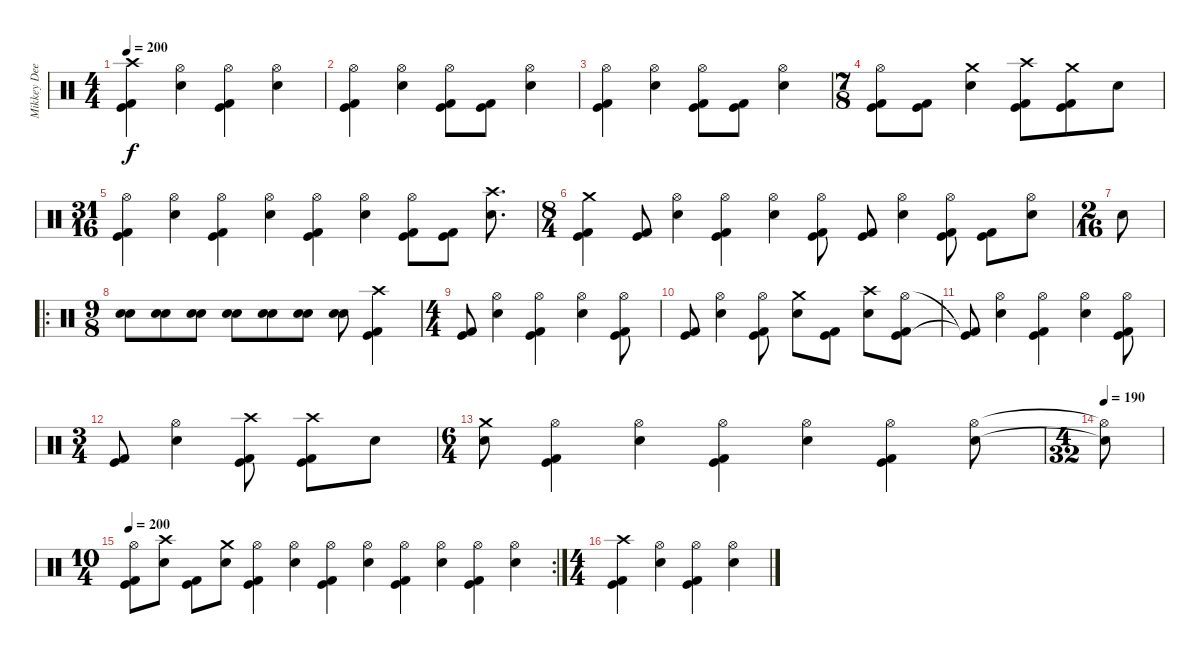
\track ("Mikkey Dee" "Mikkey Dee") {instrument percussion}
\staff {score}
\articulation defaults
\ts (4 4)
\tempo 200
\clef neutral
\ks c
("Crash high (hit)" "Kick (hit)" "Kick (hit) 2").4{dy f} ("Hi-Hat (open)" "Electric Snare (hit)").4 ("Hi-Hat (open)" "Kick (hit)" "Kick (hit) 2").4 ("Hi-Hat (open)" "Electric Snare (hit)").4 |
("Hi-Hat (open)" "Kick (hit)" "Kick (hit) 2").4 ("Hi-Hat (open)" "Electric Snare (hit)").4 ("Hi-Hat (open)" "Kick (hit)" "Kick (hit) 2").8 ("Kick (hit)" "Kick (hit) 2").8 ("Hi-Hat (open)" "Electric Snare (hit)").4 |
("Hi-Hat (open)" "Kick (hit)" "Kick (hit) 2").4 ("Hi-Hat (open)" "Electric Snare (hit)").4 ("Hi-Hat (open)" "Kick (hit)" "Kick (hit) 2").8 ("Kick (hit)" "Kick (hit) 2").8 ("Hi-Hat (open)" "Electric Snare (hit)").4 |
\ts (7 8)
("Hi-Hat (open)" "Kick (hit)" "Kick (hit) 2").8 ("Kick (hit)" "Kick (hit) 2").8 ("Crash medium (hit)" "Electric Snare (hit)").4 ("Crash high (hit)" "Kick (hit)" "Kick (hit) 2").8 ("Crash medium (hit)" "Kick (hit)" "Kick (hit) 2").8 "Electric Snare (hit)".8 |
\ts (31 16)
("Hi-Hat (open)" "Kick (hit)" "Kick (hit) 2").4 ("Hi-Hat (open)" "Electric Snare (hit)").4 ("Hi-Hat (open)" "Kick (hit)" "Kick (hit) 2").4 ("Hi-Hat (open)" "Electric Snare (hit)").4 ("Hi-Hat (open)" "Kick (hit)" "Kick (hit) 2").4 ("Hi-Hat (open)" "Electric Snare (hit)").4 ("Hi-Hat (open)" "Kick (hit)" "Kick (hit) 2").8 ("Kick (hit)" "Kick (hit) 2").8 ("Crash high (hit)" "Electric Snare (hit)").8{d} |
\ts (8 4)
("Crash medium (hit)" "Kick (hit)" "Kick (hit) 2").4 ("Kick (hit)" "Kick (hit) 2").8 ("Hi-Hat (open)" "Electric Snare (hit)").4 ("Hi-Hat (open)" "Kick (hit)" "Kick (hit) 2").4 ("Hi-Hat (open)" "Electric Snare (hit)").4 ("Hi-Hat (open)" "Kick (hit)" "Kick (hit) 2").8 ("Kick (hit)" "Kick (hit) 2").8 ("Hi-Hat (open)" "Electric Snare (hit)").4 ("Hi-Hat (open)" "Kick (hit)" "Kick (hit) 2").8 ("Kick (hit)" "Kick (hit) 2").8 ("Hi-Hat (open)" "Electric Snare (hit)").8 |
\ts (2 16)
"Electric Snare (hit)".8 |
\ro
\ts (9 8)
("Electric Snare (hit)" "Snare (hit) 2").8 ("Electric Snare (hit)" "Snare (hit) 2").8 ("Electric Snare (hit)" "Snare (hit) 2").8 ("Electric Snare (hit)" "Snare (hit) 2").8 ("Electric Snare (hit)" "Snare (hit) 2").8 ("Electric Snare (hit)" "Snare (hit) 2").8 ("Electric Snare (hit)" "Snare (hit) 2").8 ("Crash high (hit)" "Kick (hit)" "Kick (hit) 2").4 |
\ts (4 4)
("Kick (hit)" "Kick (hit) 2").8 ("Hi-Hat (open)" "Electric Snare (hit)").4 ("Hi-Hat (open)" "Kick (hit)" "Kick (hit) 2").4 ("Hi-Hat (open)" "Electric Snare (hit)").4 ("Hi-Hat (open)" "Kick (hit)" "Kick (hit) 2").8 |
("Kick (hit)" "Kick (hit) 2").8 ("Hi-Hat (open)" "Electric Snare (hit)").4 ("Hi-Hat (open)" "Kick (hit)" "Kick (hit) 2").8 ("Crash medium (hit)" "Electric Snare (hit)").8 ("Kick (hit)" "Kick (hit) 2").8 ("Crash high (hit)" "Electric Snare (hit)").8 ("Hi-Hat (open)" "Kick (hit)" "Kick (hit) 2").8 |
("Kick (hit)"{t} "Kick (hit) 2"{t}).8 ("Hi-Hat (open)" "Electric Snare (hit)").4 ("Hi-Hat (open)" "Kick (hit)" "Kick (hit) 2").4 ("Hi-Hat (open)" "Electric Snare (hit)").4 ("Hi-Hat (open)" "Kick (hit)" "Kick (hit) 2").8 |
\ts (3 4)
("Kick (hit)" "Kick (hit) 2").8 ("Hi-Hat (open)" "Electric Snare (hit)").4 ("Crash high (hit)" "Kick (hit)" "Kick (hit) 2").8 ("Crash high (hit)" "Kick (hit)" "Kick (hit) 2").8 "Electric Snare (hit)".8 |
\ts (6 4)
("Crash medium (hit)" "Electric Snare (hit)").8 ("Hi-Hat (open)" "Kick (hit)" "Kick (hit) 2").4 ("Hi-Hat (open)" "Electric Snare (hit)").4 ("Hi-Hat (open)" "Kick (hit)" "Kick (hit) 2").4 ("Hi-Hat (open)" "Electric Snare (hit)").4 ("Hi-Hat (open)" "Kick (hit)" "Kick (hit) 2").4 ("Hi-Hat (open)" "Electric Snare (hit)").8 |
\ts (4 32)
\tempo 190
("Hi-Hat (open)"{t} "Snare (hit) 2"{t}).8 |
\rc 2
\ts (10 4)
\tempo 200
("Hi-Hat (open)" "Kick (hit)" "Kick (hit) 2").8 ("Crash high (hit)" "Electric Snare (hit)").8 ("Kick (hit)" "Kick (hit) 2").8 ("Crash medium (hit)" "Electric Snare (hit)").8 ("Hi-Hat (open)" "Kick (hit)" "Kick (hit) 2").4 ("Hi-Hat (open)" "Electric Snare (hit)").4 ("Hi-Hat (open)" "Kick (hit)" "Kick (hit) 2").4 ("Hi-Hat (open)" "Electric Snare (hit)").4 ("Hi-Hat (open)" "Kick (hit)" "Kick (hit) 2").4 ("Hi-Hat (open)" "Electric Snare (hit)").4 ("Hi-Hat (open)" "Kick (hit)" "Kick (hit) 2").4 ("Hi-Hat (open)" "Electric Snare (hit)").4 |
\ts (4 4)
("Crash high (hit)" "Kick (hit)" "Kick (hit) 2").4 ("Hi-Hat (open)" "Electric Snare (hit)").4 ("Hi-Hat (open)" "Kick (hit)" "Kick (hit) 2").4 ("Hi-Hat (open)" "Electric Snare (hit)").4
